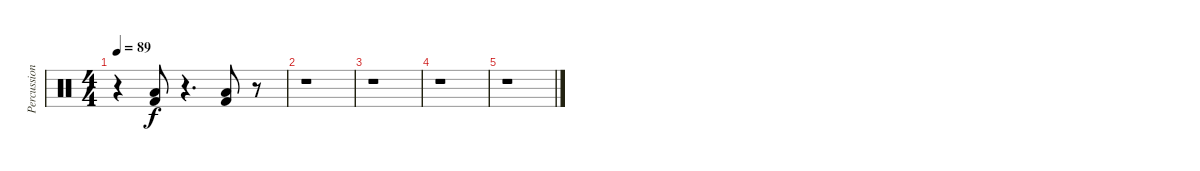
\track ("Percussion" "Percussion") {instrument percussion}
\staff {score}
\articulation defaults
\ts (4 4)
\tempo 89
\clef neutral
\ks c
r.4{dy f} ("Low Floor Tom (hit)" "Kick (hit) 2").8 r.4{d} ("Low Floor Tom (hit)" "Kick (hit) 2").8 r.8 |
r.1 |
r.1 |
r.1 |
r.1
